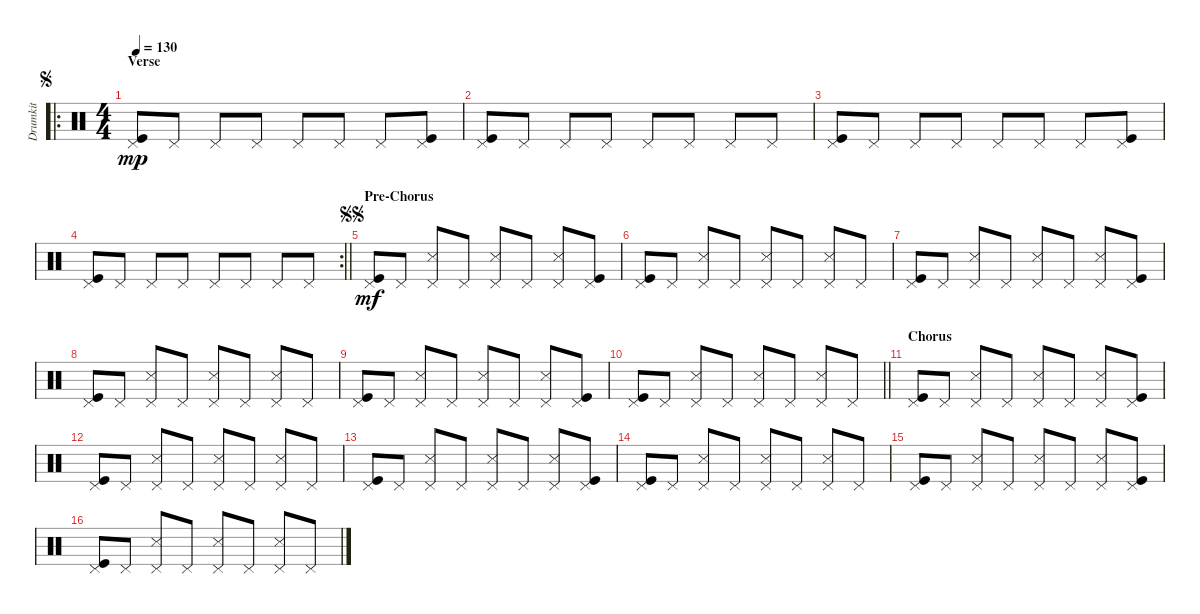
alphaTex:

\track ("Drumkit" "Drumkit") {instrument percussion}
\staff {score}
\articulation defaults
\ro
\ts (4 4)
\section ("" "Verse")
\jump segno
\tempo 130
\clef neutral
\ks c
("Kick (hit)" "Pedal Hi-Hat (hit)").8{dy mp} "Pedal Hi-Hat (hit)".8 "Pedal Hi-Hat (hit)".8 "Pedal Hi-Hat (hit)".8 "Pedal Hi-Hat (hit)".8 "Pedal Hi-Hat (hit)".8 "Pedal Hi-Hat (hit)".8 ("Kick (hit)" "Pedal Hi-Hat (hit)").8 |
("Kick (hit)" "Pedal Hi-Hat (hit)").8 "Pedal Hi-Hat (hit)".8 "Pedal Hi-Hat (hit)".8 "Pedal Hi-Hat (hit)".8 "Pedal Hi-Hat (hit)".8 "Pedal Hi-Hat (hit)".8 "Pedal Hi-Hat (hit)".8 "Pedal Hi-Hat (hit)".8 |
("Kick (hit)" "Pedal Hi-Hat (hit)").8 "Pedal Hi-Hat (hit)".8 "Pedal Hi-Hat (hit)".8 "Pedal Hi-Hat (hit)".8 "Pedal Hi-Hat (hit)".8 "Pedal Hi-Hat (hit)".8 "Pedal Hi-Hat (hit)".8 ("Kick (hit)" "Pedal Hi-Hat (hit)").8 |
\rc 2
\barLineRight lightlight
("Kick (hit)" "Pedal Hi-Hat (hit)").8 "Pedal Hi-Hat (hit)".8 "Pedal Hi-Hat (hit)".8 "Pedal Hi-Hat (hit)".8 "Pedal Hi-Hat (hit)".8 "Pedal Hi-Hat (hit)".8 "Pedal Hi-Hat (hit)".8 "Pedal Hi-Hat (hit)".8 |
\section ("" "Pre-Chorus")
\jump segnosegno
("Kick (hit)" "Pedal Hi-Hat (hit)").8{dy mf} "Pedal Hi-Hat (hit)".8 ("Pedal Hi-Hat (hit)" "Snare (side stick) 3").8 "Pedal Hi-Hat (hit)".8 ("Pedal Hi-Hat (hit)" "Snare (side stick) 3").8 "Pedal Hi-Hat (hit)".8 ("Pedal Hi-Hat (hit)" "Snare (side stick) 3").8 ("Kick (hit)" "Pedal Hi-Hat (hit)").8 |
("Kick (hit)" "Pedal Hi-Hat (hit)").8 "Pedal Hi-Hat (hit)".8 ("Pedal Hi-Hat (hit)" "Snare (side stick) 3").8 "Pedal Hi-Hat (hit)".8 ("Pedal Hi-Hat (hit)" "Snare (side stick) 3").8 "Pedal Hi-Hat (hit)".8 ("Pedal Hi-Hat (hit)" "Snare (side stick) 3").8 "Pedal Hi-Hat (hit)".8 |
("Kick (hit)" "Pedal Hi-Hat (hit)").8 "Pedal Hi-Hat (hit)".8 ("Pedal Hi-Hat (hit)" "Snare (side stick) 3").8 "Pedal Hi-Hat (hit)".8 ("Pedal Hi-Hat (hit)" "Snare (side stick) 3").8 "Pedal Hi-Hat (hit)".8 ("Pedal Hi-Hat (hit)" "Snare (side stick) 3").8 ("Kick (hit)" "Pedal Hi-Hat (hit)").8 |
("Kick (hit)" "Pedal Hi-Hat (hit)").8 "Pedal Hi-Hat (hit)".8 ("Pedal Hi-Hat (hit)" "Snare (side stick) 3").8 "Pedal Hi-Hat (hit)".8 ("Pedal Hi-Hat (hit)" "Snare (side stick) 3").8 "Pedal Hi-Hat (hit)".8 ("Pedal Hi-Hat (hit)" "Snare (side stick) 3").8 "Pedal Hi-Hat (hit)".8 |
("Kick (hit)" "Pedal Hi-Hat (hit)").8 "Pedal Hi-Hat (hit)".8 ("Pedal Hi-Hat (hit)" "Snare (side stick) 3").8 "Pedal Hi-Hat (hit)".8 ("Pedal Hi-Hat (hit)" "Snare (side stick) 3").8 "Pedal Hi-Hat (hit)".8 ("Pedal Hi-Hat (hit)" "Snare (side stick) 3").8 ("Kick (hit)" "Pedal Hi-Hat (hit)").8 |
\barLineRight lightlight
("Kick (hit)" "Pedal Hi-Hat (hit)").8 "Pedal Hi-Hat (hit)".8 ("Pedal Hi-Hat (hit)" "Snare (side stick) 3").8 "Pedal Hi-Hat (hit)".8 ("Pedal Hi-Hat (hit)" "Snare (side stick) 3").8 "Pedal Hi-Hat (hit)".8 ("Pedal Hi-Hat (hit)" "Snare (side stick) 3").8 "Pedal Hi-Hat (hit)".8 |
\section ("" "Chorus")
("Kick (hit)" "Pedal Hi-Hat (hit)").8 "Pedal Hi-Hat (hit)".8 ("Pedal Hi-Hat (hit)" "Snare (side stick) 3").8 "Pedal Hi-Hat (hit)".8 ("Pedal Hi-Hat (hit)" "Snare (side stick) 3").8 "Pedal Hi-Hat (hit)".8 ("Pedal Hi-Hat (hit)" "Snare (side stick) 3").8 ("Kick (hit)" "Pedal Hi-Hat (hit)").8 |
("Kick (hit)" "Pedal Hi-Hat (hit)").8 "Pedal Hi-Hat (hit)".8 ("Pedal Hi-Hat (hit)" "Snare (side stick) 3").8 "Pedal Hi-Hat (hit)".8 ("Pedal Hi-Hat (hit)" "Snare (side stick) 3").8 "Pedal Hi-Hat (hit)".8 ("Pedal Hi-Hat (hit)" "Snare (side stick) 3").8 "Pedal Hi-Hat (hit)".8 |
("Kick (hit)" "Pedal Hi-Hat (hit)").8 "Pedal Hi-Hat (hit)".8 ("Pedal Hi-Hat (hit)" "Snare (side stick) 3").8 "Pedal Hi-Hat (hit)".8 ("Pedal Hi-Hat (hit)" "Snare (side stick) 3").8 "Pedal Hi-Hat (hit)".8 ("Pedal Hi-Hat (hit)" "Snare (side stick) 3").8 ("Kick (hit)" "Pedal Hi-Hat (hit)").8 |
("Kick (hit)" "Pedal Hi-Hat (hit)").8 "Pedal Hi-Hat (hit)".8 ("Pedal Hi-Hat (hit)" "Snare (side stick) 3").8 "Pedal Hi-Hat (hit)".8 ("Pedal Hi-Hat (hit)" "Snare (side stick) 3").8 "Pedal Hi-Hat (hit)".8 ("Pedal Hi-Hat (hit)" "Snare (side stick) 3").8 "Pedal Hi-Hat (hit)".8 |
("Kick (hit)" "Pedal Hi-Hat (hit)").8 "Pedal Hi-Hat (hit)".8 ("Pedal Hi-Hat (hit)" "Snare (side stick) 3").8 "Pedal Hi-Hat (hit)".8 ("Pedal Hi-Hat (hit)" "Snare (side stick) 3").8 "Pedal Hi-Hat (hit)".8 ("Pedal Hi-Hat (hit)" "Snare (side stick) 3").8 ("Kick (hit)" "Pedal Hi-Hat (hit)").8 |
("Kick (hit)" "Pedal Hi-Hat (hit)").8 "Pedal Hi-Hat (hit)".8 ("Pedal Hi-Hat (hit)" "Snare (side stick) 3").8 "Pedal Hi-Hat (hit)".8 ("Pedal Hi-Hat (hit)" "Snare (side stick) 3").8 "Pedal Hi-Hat (hit)".8 ("Pedal Hi-Hat (hit)" "Snare (side stick) 3").8 "Pedal Hi-Hat (hit)".8
